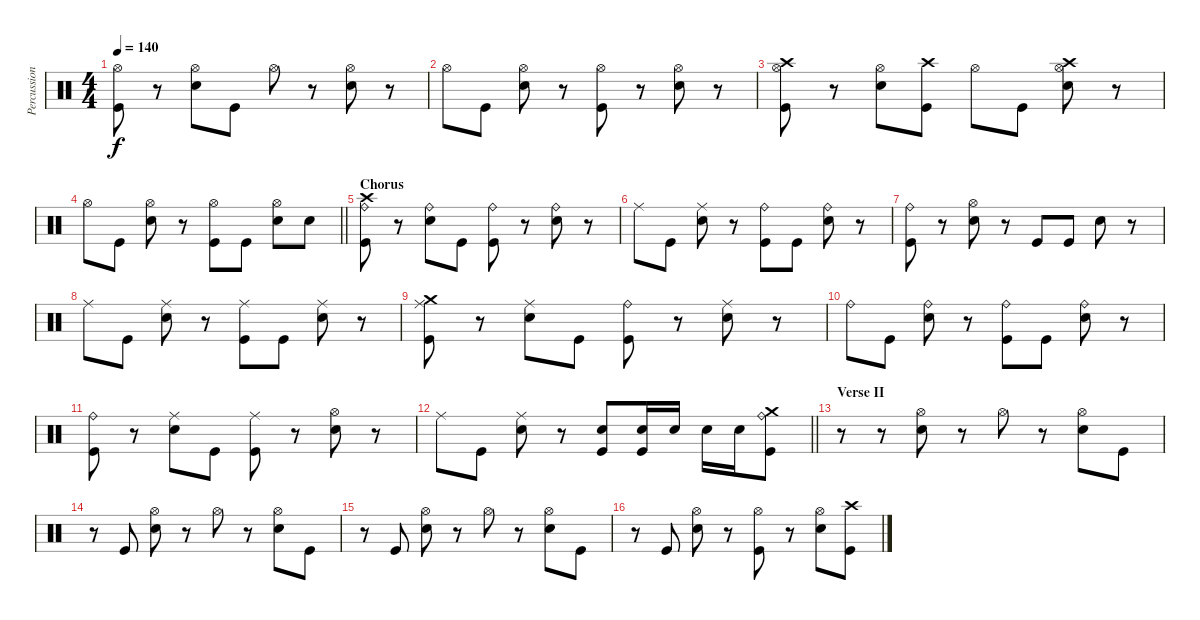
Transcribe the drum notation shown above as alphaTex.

\track ("Percussion" "Percussion") {instrument percussion}
\staff {score}
\articulation defaults
\ts (4 4)
\tempo 140
\clef neutral
\ks c
("Hi-Hat (open)" "Kick (hit)").8{dy f} r.8 ("Hi-Hat (open)" "Snare (hit) 2").8 "Kick (hit)".8 "Hi-Hat (open)".8 r.8 ("Hi-Hat (open)" "Snare (hit) 2").8 r.8 |
"Hi-Hat (open)".8 "Kick (hit)".8 ("Hi-Hat (open)" "Snare (hit) 2").8 r.8 ("Hi-Hat (open)" "Kick (hit)").8 r.8 ("Hi-Hat (open)" "Snare (hit) 2").8 r.8 |
("Crash high (hit)" "Hi-Hat (open)" "Kick (hit)").8 r.8 ("Hi-Hat (open)" "Snare (hit) 2").8 ("Crash high (hit)" "Kick (hit)").8 "Hi-Hat (open)".8 "Kick (hit)".8 ("Crash high (hit)" "Hi-Hat (open)" "Snare (hit) 2").8 r.8 |
\barLineRight lightlight "Hi-Hat (open)".8 "Kick (hit)".8
("Hi-Hat (open)" "Snare (hit) 2").8 r.8 ("Hi-Hat (open)" "Kick (hit)").8 "Kick (hit)".8 ("Hi-Hat (open)" "Snare (hit) 2").8 "Snare (hit) 2".8 |
\section ("" "Chorus")
("Crash high (hit)" "Ride (bell)" "Kick (hit)").8 r.8 ("Ride (bell)" "Snare (hit) 2").8 "Kick (hit)".8 ("Ride (bell)" "Kick (hit)").8 r.8 ("Ride (bell)" "Snare (hit) 2").8 r.8 |
"Ride (middle)".8 "Kick (hit)".8 ("Ride (middle)" "Snare (hit) 2").8 r.8 ("Ride (bell)" "Kick (hit)").8 "Kick (hit)".8 ("Ride (bell)" "Snare (hit) 2").8 r.8 |
("Ride (bell)" "Kick (hit)").8 r.8 ("Hi-Hat (open)" "Snare (hit) 2").8 r.8 "Kick (hit)".8 "Kick (hit)".8 "Snare (hit) 2".8 r.8 |
"Ride (middle)".8 "Kick (hit)".8 ("Ride (middle)" "Snare (hit) 2").8 r.8 ("Ride (middle)" "Kick (hit)").8 "Kick (hit)".8 ("Ride (middle)" "Snare (hit) 2").8 r.8 |
("Crash medium (hit)" "Ride (middle)" "Kick (hit)").8 r.8 ("Ride (middle)" "Snare (hit) 2").8 "Kick (hit)".8 ("Ride (bell)" "Kick (hit)").8 r.8 ("Ride (middle)" "Snare (hit) 2").8 r.8 |
"Ride (bell)".8 "Kick (hit)".8 ("Ride (bell)" "Snare (hit) 2").8 r.8 ("Ride (bell)" "Kick (hit)").8 "Kick (hit)".8 ("Ride (bell)" "Snare (hit) 2").8 r.8 |
("Ride (bell)" "Kick (hit)").8 r.8 ("Ride (middle)" "Snare (hit) 2").8 "Kick (hit)".8 ("Ride (middle)" "Kick (hit)").8 r.8 ("Hi-Hat (open)" "Snare (hit) 2").8 r.8 |
\barLineRight lightlight "Ride (middle)".8 "Kick (hit)".8
("Ride (middle)" "Snare (hit) 2").8 r.8 ("Snare (hit) 2" "Kick (hit)").8 ("Snare (hit) 2" "Kick (hit)").16 "Snare (hit) 2".16 "Snare (hit) 2".16 "Snare (hit) 2".16 ("Crash medium (hit)" "Ride (bell)" "Kick (hit)").8 |
\section ("" "Verse II")
r.8 r.8 ("Hi-Hat (open)" "Snare (hit) 2").8 r.8 "Hi-Hat (open)".8 r.8 ("Hi-Hat (open)" "Snare (hit) 2").8 "Kick (hit)".8 |
r.8 "Kick (hit)".8 ("Hi-Hat (open)" "Snare (hit) 2").8 r.8 "Hi-Hat (open)".8 r.8 ("Hi-Hat (open)" "Snare (hit) 2").8 "Kick (hit)".8 |
r.8 "Kick (hit)".8 ("Hi-Hat (open)" "Snare (hit) 2").8 r.8 "Hi-Hat (open)".8 r.8 ("Hi-Hat (open)" "Snare (hit) 2").8 "Kick (hit)".8 |
r.8 "Kick (hit)".8 ("Hi-Hat (open)" "Snare (hit) 2").8 r.8 ("Hi-Hat (open)" "Kick (hit)").8 r.8 ("Hi-Hat (open)" "Snare (hit) 2").8 ("Crash high (hit)" "Kick (hit)").8
